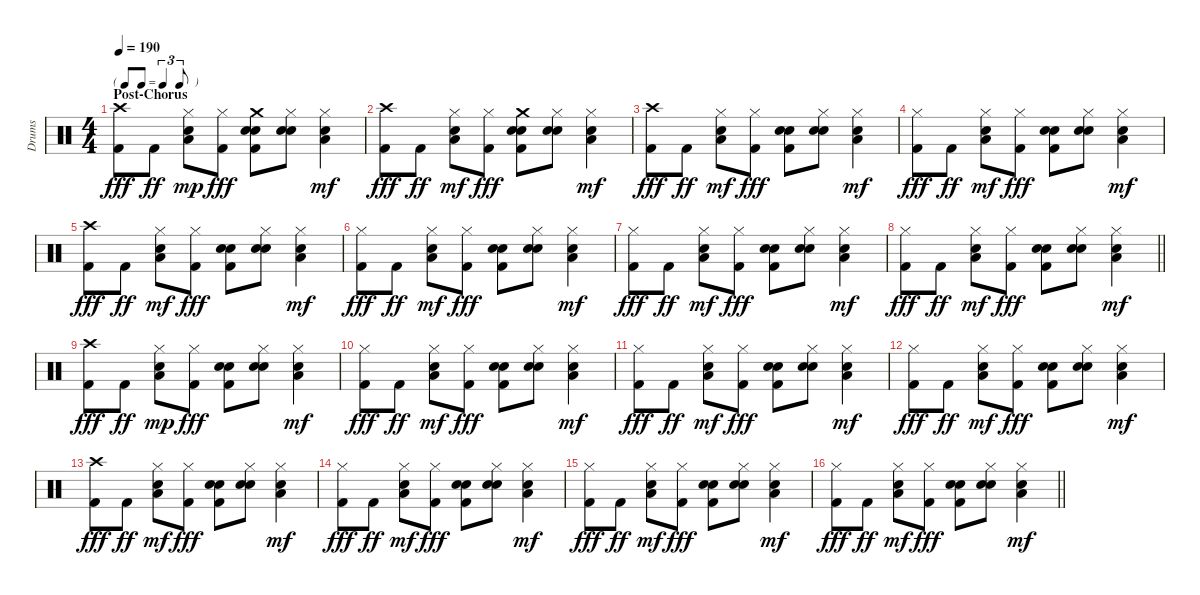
\track ("Drums" "Drums") {instrument percussion}
\staff {score}
\articulation defaults
\ts (4 4)
\tf triplet8th
\section ("" "Post-Chorus")
\tempo 190
\clef neutral
\ks c
("Crash high (hit)" "Kick (hit) 2").8{dy fff} "Kick (hit) 2".8{dy ff} ("Hi-Hat (closed)" "Low Tom (hit)" "Hand Clap (hit)").8{dy mp} ("Hi-Hat (closed)" "Kick (hit) 2").8{dy fff} ("Crash medium (hit)" "Kick (hit) 2" "Hand Clap (hit)" "Hand Clap (hit)").8 ("Hi-Hat (closed)" "Hand Clap (hit)" "Hand Clap (hit)").8 ("Hi-Hat (closed)" "Low Tom (hit)" "Hand Clap (hit)").4{dy mf} |
("Crash high (hit)" "Kick (hit) 2").8{dy fff} "Kick (hit) 2".8{dy ff} ("Hi-Hat (closed)" "Low Tom (hit)" "Hand Clap (hit)").8{dy mf} ("Hi-Hat (closed)" "Kick (hit) 2").8{dy fff} ("Crash medium (hit)" "Kick (hit) 2" "Hand Clap (hit)" "Hand Clap (hit)").8 ("Hi-Hat (closed)" "Hand Clap (hit)" "Hand Clap (hit)").8 ("Hi-Hat (closed)" "Low Tom (hit)" "Hand Clap (hit)").4{dy mf} |
("Crash high (hit)" "Kick (hit) 2").8{dy fff} "Kick (hit) 2".8{dy ff} ("Hi-Hat (closed)" "Low Tom (hit)" "Hand Clap (hit)").8{dy mf} ("Hi-Hat (closed)" "Kick (hit) 2").8{dy fff} ("Kick (hit) 2" "Hand Clap (hit)" "Hand Clap (hit)").8 ("Hi-Hat (closed)" "Hand Clap (hit)" "Hand Clap (hit)").8 ("Hi-Hat (closed)" "Low Tom (hit)" "Hand Clap (hit)").4{dy mf} |
("Hi-Hat (closed)" "Kick (hit) 2").8{dy fff} "Kick (hit) 2".8{dy ff} ("Hi-Hat (closed)" "Low Tom (hit)" "Hand Clap (hit)").8{dy mf} ("Hi-Hat (closed)" "Kick (hit) 2").8{dy fff} ("Kick (hit) 2" "Hand Clap (hit)" "Hand Clap (hit)").8 ("Hi-Hat (closed)" "Hand Clap (hit)" "Hand Clap (hit)").8 ("Hi-Hat (closed)" "Low Tom (hit)" "Hand Clap (hit)").4{dy mf} |
("Crash high (hit)" "Kick (hit) 2").8{dy fff} "Kick (hit) 2".8{dy ff} ("Hi-Hat (closed)" "Low Tom (hit)" "Hand Clap (hit)").8{dy mf} ("Hi-Hat (closed)" "Kick (hit) 2").8{dy fff} ("Kick (hit) 2" "Hand Clap (hit)" "Hand Clap (hit)").8 ("Hi-Hat (closed)" "Hand Clap (hit)" "Hand Clap (hit)").8 ("Hi-Hat (closed)" "Low Tom (hit)" "Hand Clap (hit)").4{dy mf} |
("Hi-Hat (closed)" "Kick (hit) 2").8{dy fff} "Kick (hit) 2".8{dy ff} ("Hi-Hat (closed)" "Low Tom (hit)" "Hand Clap (hit)").8{dy mf} ("Hi-Hat (closed)" "Kick (hit) 2").8{dy fff} ("Kick (hit) 2" "Hand Clap (hit)" "Hand Clap (hit)").8 ("Hi-Hat (closed)" "Hand Clap (hit)" "Hand Clap (hit)").8 ("Hi-Hat (closed)" "Low Tom (hit)" "Hand Clap (hit)").4{dy mf} |
("Hi-Hat (closed)" "Kick (hit) 2").8{dy fff} "Kick (hit) 2".8{dy ff} ("Hi-Hat (closed)" "Low Tom (hit)" "Hand Clap (hit)").8{dy mf} ("Hi-Hat (closed)" "Kick (hit) 2").8{dy fff} ("Kick (hit) 2" "Hand Clap (hit)" "Hand Clap (hit)").8 ("Hi-Hat (closed)" "Hand Clap (hit)" "Hand Clap (hit)").8 ("Hi-Hat (closed)" "Low Tom (hit)" "Hand Clap (hit)").4{dy mf} |
\barLineRight lightlight
("Hi-Hat (closed)" "Kick (hit) 2").8{dy fff} "Kick (hit) 2".8{dy ff} ("Hi-Hat (closed)" "Low Tom (hit)" "Hand Clap (hit)").8{dy mf} ("Hi-Hat (closed)" "Kick (hit) 2").8{dy fff} ("Kick (hit) 2" "Hand Clap (hit)" "Hand Clap (hit)").8 ("Hi-Hat (closed)" "Hand Clap (hit)" "Hand Clap (hit)").8 ("Hi-Hat (closed)" "Low Tom (hit)" "Hand Clap (hit)").4{dy mf} |
("Crash high (hit)" "Kick (hit) 2").8{dy fff} "Kick (hit) 2".8{dy ff} ("Hi-Hat (closed)" "Low Tom (hit)" "Hand Clap (hit)").8{dy mp} ("Hi-Hat (closed)" "Kick (hit) 2").8{dy fff} ("Kick (hit) 2" "Hand Clap (hit)" "Hand Clap (hit)").8 ("Hi-Hat (closed)" "Hand Clap (hit)" "Hand Clap (hit)").8 ("Hi-Hat (closed)" "Low Tom (hit)" "Hand Clap (hit)").4{dy mf} |
("Hi-Hat (closed)" "Kick (hit) 2").8{dy fff} "Kick (hit) 2".8{dy ff} ("Hi-Hat (closed)" "Low Tom (hit)" "Hand Clap (hit)").8{dy mf} ("Hi-Hat (closed)" "Kick (hit) 2").8{dy fff} ("Kick (hit) 2" "Hand Clap (hit)" "Hand Clap (hit)").8 ("Hi-Hat (closed)" "Hand Clap (hit)" "Hand Clap (hit)").8 ("Hi-Hat (closed)" "Low Tom (hit)" "Hand Clap (hit)").4{dy mf} |
("Hi-Hat (closed)" "Kick (hit) 2").8{dy fff} "Kick (hit) 2".8{dy ff} ("Hi-Hat (closed)" "Low Tom (hit)" "Hand Clap (hit)").8{dy mf} ("Hi-Hat (closed)" "Kick (hit) 2").8{dy fff} ("Kick (hit) 2" "Hand Clap (hit)" "Hand Clap (hit)").8 ("Hi-Hat (closed)" "Hand Clap (hit)" "Hand Clap (hit)").8 ("Hi-Hat (closed)" "Low Tom (hit)" "Hand Clap (hit)").4{dy mf} |
("Hi-Hat (closed)" "Kick (hit) 2").8{dy fff} "Kick (hit) 2".8{dy ff} ("Hi-Hat (closed)" "Low Tom (hit)" "Hand Clap (hit)").8{dy mf} ("Hi-Hat (closed)" "Kick (hit) 2").8{dy fff} ("Kick (hit) 2" "Hand Clap (hit)" "Hand Clap (hit)").8 ("Hi-Hat (closed)" "Hand Clap (hit)" "Hand Clap (hit)").8 ("Hi-Hat (closed)" "Low Tom (hit)" "Hand Clap (hit)").4{dy mf} |
("Crash high (hit)" "Kick (hit) 2").8{dy fff} "Kick (hit) 2".8{dy ff} ("Hi-Hat (closed)" "Low Tom (hit)" "Hand Clap (hit)").8{dy mf} ("Hi-Hat (closed)" "Kick (hit) 2").8{dy fff} ("Kick (hit) 2" "Hand Clap (hit)" "Hand Clap (hit)").8 ("Hi-Hat (closed)" "Hand Clap (hit)" "Hand Clap (hit)").8 ("Hi-Hat (closed)" "Low Tom (hit)" "Hand Clap (hit)").4{dy mf} |
("Hi-Hat (closed)" "Kick (hit) 2").8{dy fff} "Kick (hit) 2".8{dy ff} ("Hi-Hat (closed)" "Low Tom (hit)" "Hand Clap (hit)").8{dy mf} ("Hi-Hat (closed)" "Kick (hit) 2").8{dy fff} ("Kick (hit) 2" "Hand Clap (hit)" "Hand Clap (hit)").8 ("Hi-Hat (closed)" "Hand Clap (hit)" "Hand Clap (hit)").8 ("Hi-Hat (closed)" "Low Tom (hit)" "Hand Clap (hit)").4{dy mf} |
("Hi-Hat (closed)" "Kick (hit) 2").8{dy fff} "Kick (hit) 2".8{dy ff} ("Hi-Hat (closed)" "Low Tom (hit)" "Hand Clap (hit)").8{dy mf} ("Hi-Hat (closed)" "Kick (hit) 2").8{dy fff} ("Kick (hit) 2" "Hand Clap (hit)" "Hand Clap (hit)").8 ("Hi-Hat (closed)" "Hand Clap (hit)" "Hand Clap (hit)").8 ("Hi-Hat (closed)" "Low Tom (hit)" "Hand Clap (hit)").4{dy mf} |
\barLineRight lightlight
("Hi-Hat (closed)" "Kick (hit) 2").8{dy fff} "Kick (hit) 2".8{dy ff} ("Hi-Hat (closed)" "Low Tom (hit)" "Hand Clap (hit)").8{dy mf} ("Hi-Hat (closed)" "Kick (hit) 2").8{dy fff} ("Kick (hit) 2" "Hand Clap (hit)" "Hand Clap (hit)").8 ("Hi-Hat (closed)" "Hand Clap (hit)" "Hand Clap (hit)").8 ("Hi-Hat (closed)" "Low Tom (hit)" "Hand Clap (hit)").4{dy mf}
